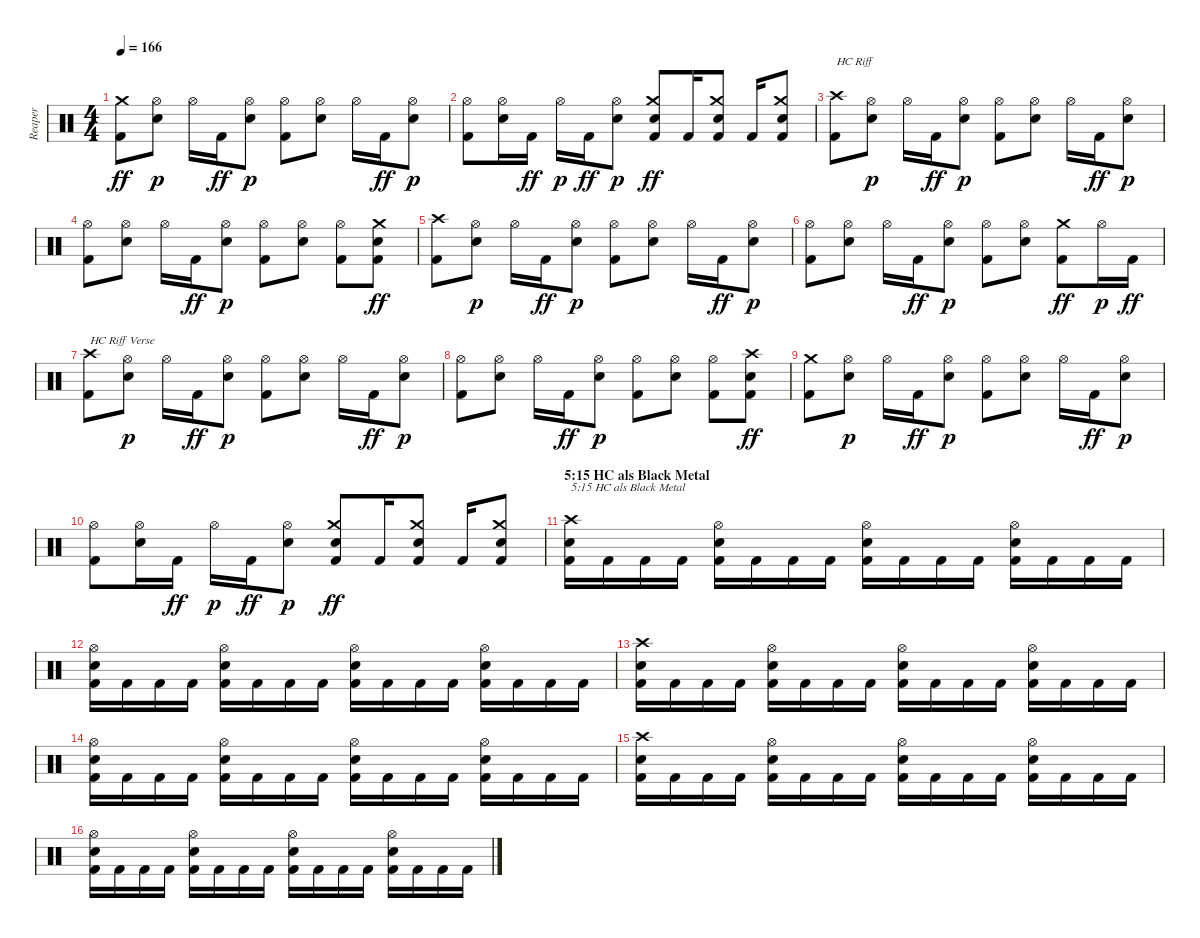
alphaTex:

\track ("Reaper" "Reaper") {instrument percussion}
\staff {score}
\articulation defaults
\ts (4 4)
\tempo 166
\clef neutral
\ks c
("Kick (hit) 2" "Crash medium (hit)").8{dy ff} ("Electric Snare (hit)" "Hi-Hat (open)").8{dy p} "Hi-Hat (open)".16 "Kick (hit) 2".16{dy ff} ("Electric Snare (hit)" "Hi-Hat (open)").8{dy p} ("Kick (hit) 2" "Hi-Hat (open)").8 ("Electric Snare (hit)" "Hi-Hat (open)").8 "Hi-Hat (open)".16 "Kick (hit) 2".16{dy ff} ("Electric Snare (hit)" "Hi-Hat (open)").8{dy p} |
("Kick (hit) 2" "Hi-Hat (open)").8 ("Electric Snare (hit)" "Hi-Hat (open)").16 "Kick (hit) 2".16{dy ff} "Hi-Hat (open)".16{dy p} "Kick (hit) 2".16{dy ff} ("Electric Snare (hit)" "Hi-Hat (open)").8{dy p} ("Kick (hit) 2" "Electric Snare (hit)" "Crash medium (hit)").8{dy ff} "Kick (hit) 2".16 ("Kick (hit) 2" "Electric Snare (hit)" "Crash medium (hit)").8 "Kick (hit) 2".16 ("Kick (hit) 2" "Electric Snare (hit)" "Crash medium (hit)").8 |
("Kick (hit) 2" "Crash high (hit)").8{txt "HC Riff"} ("Electric Snare (hit)" "Hi-Hat (open)").8{dy p} "Hi-Hat (open)".16 "Kick (hit) 2".16{dy ff} ("Electric Snare (hit)" "Hi-Hat (open)").8{dy p} ("Kick (hit) 2" "Hi-Hat (open)").8 ("Electric Snare (hit)" "Hi-Hat (open)").8 "Hi-Hat (open)".16 "Kick (hit) 2".16{dy ff} ("Electric Snare (hit)" "Hi-Hat (open)").8{dy p} |
("Kick (hit) 2" "Hi-Hat (open)").8 ("Electric Snare (hit)" "Hi-Hat (open)").8 "Hi-Hat (open)".16 "Kick (hit) 2".16{dy ff} ("Electric Snare (hit)" "Hi-Hat (open)").8{dy p} ("Kick (hit) 2" "Hi-Hat (open)").8 ("Electric Snare (hit)" "Hi-Hat (open)").8 ("Kick (hit) 2" "Hi-Hat (open)").8 ("Kick (hit) 2" "Electric Snare (hit)" "Crash medium (hit)").8{dy ff} |
("Kick (hit) 2" "Crash high (hit)").8 ("Electric Snare (hit)" "Hi-Hat (open)").8{dy p} "Hi-Hat (open)".16 "Kick (hit) 2".16{dy ff} ("Electric Snare (hit)" "Hi-Hat (open)").8{dy p} ("Kick (hit) 2" "Hi-Hat (open)").8 ("Electric Snare (hit)" "Hi-Hat (open)").8 "Hi-Hat (open)".16 "Kick (hit) 2".16{dy ff} ("Electric Snare (hit)" "Hi-Hat (open)").8{dy p} |
("Kick (hit) 2" "Hi-Hat (open)").8 ("Electric Snare (hit)" "Hi-Hat (open)").8 "Hi-Hat (open)".16 "Kick (hit) 2".16{dy ff} ("Electric Snare (hit)" "Hi-Hat (open)").8{dy p} ("Kick (hit) 2" "Hi-Hat (open)").8 ("Electric Snare (hit)" "Hi-Hat (open)").8 ("Kick (hit) 2" "Crash medium (hit)").8{dy ff} "Hi-Hat (open)".16{dy p} "Kick (hit) 2".16{dy ff} |
("Kick (hit) 2" "Crash high (hit)").8{txt "HC Riff Verse"} ("Electric Snare (hit)" "Hi-Hat (open)").8{dy p} "Hi-Hat (open)".16 "Kick (hit) 2".16{dy ff} ("Electric Snare (hit)" "Hi-Hat (open)").8{dy p} ("Kick (hit) 2" "Hi-Hat (open)").8 ("Electric Snare (hit)" "Hi-Hat (open)").8 "Hi-Hat (open)".16 "Kick (hit) 2".16{dy ff} ("Electric Snare (hit)" "Hi-Hat (open)").8{dy p} |
("Kick (hit) 2" "Hi-Hat (open)").8 ("Electric Snare (hit)" "Hi-Hat (open)").8 "Hi-Hat (open)".16 "Kick (hit) 2".16{dy ff} ("Electric Snare (hit)" "Hi-Hat (open)").8{dy p} ("Kick (hit) 2" "Hi-Hat (open)").8 ("Electric Snare (hit)" "Hi-Hat (open)").8 ("Kick (hit) 2" "Hi-Hat (open)").8 ("Kick (hit) 2" "Electric Snare (hit)" "Crash high (hit)").8{dy ff} |
("Kick (hit) 2" "Crash medium (hit)").8 ("Electric Snare (hit)" "Hi-Hat (open)").8{dy p} "Hi-Hat (open)".16 "Kick (hit) 2".16{dy ff} ("Electric Snare (hit)" "Hi-Hat (open)").8{dy p} ("Kick (hit) 2" "Hi-Hat (open)").8 ("Electric Snare (hit)" "Hi-Hat (open)").8 "Hi-Hat (open)".16 "Kick (hit) 2".16{dy ff} ("Electric Snare (hit)" "Hi-Hat (open)").8{dy p} |
("Kick (hit) 2" "Hi-Hat (open)").8 ("Electric Snare (hit)" "Hi-Hat (open)").16 "Kick (hit) 2".16{dy ff} "Hi-Hat (open)".16{dy p} "Kick (hit) 2".16{dy ff} ("Electric Snare (hit)" "Hi-Hat (open)").8{dy p} ("Kick (hit) 2" "Electric Snare (hit)" "Crash medium (hit)").8{dy ff} "Kick (hit) 2".16 ("Kick (hit) 2" "Electric Snare (hit)" "Crash medium (hit)").8 "Kick (hit) 2".16 ("Kick (hit) 2" "Electric Snare (hit)" "Crash medium (hit)").8 |
\section ("" "5:15 HC als Black Metal")
("Kick (hit) 2" "Electric Snare (hit)" "Crash high (hit)").16{txt "5:15 HC als Black Metal"} "Kick (hit) 2".16 "Kick (hit) 2".16 "Kick (hit) 2".16 ("Kick (hit) 2" "Electric Snare (hit)" "Hi-Hat (open)").16 "Kick (hit) 2".16 "Kick (hit) 2".16 "Kick (hit) 2".16 ("Kick (hit) 2" "Electric Snare (hit)" "Hi-Hat (open)").16 "Kick (hit) 2".16 "Kick (hit) 2".16 "Kick (hit) 2".16 ("Kick (hit) 2" "Electric Snare (hit)" "Hi-Hat (open)").16 "Kick (hit) 2".16 "Kick (hit) 2".16 "Kick (hit) 2".16 |
("Kick (hit) 2" "Electric Snare (hit)" "Hi-Hat (open)").16 "Kick (hit) 2".16 "Kick (hit) 2".16 "Kick (hit) 2".16 ("Kick (hit) 2" "Electric Snare (hit)" "Hi-Hat (open)").16 "Kick (hit) 2".16 "Kick (hit) 2".16 "Kick (hit) 2".16 ("Kick (hit) 2" "Electric Snare (hit)" "Hi-Hat (open)").16 "Kick (hit) 2".16 "Kick (hit) 2".16 "Kick (hit) 2".16 ("Kick (hit) 2" "Electric Snare (hit)" "Hi-Hat (open)").16 "Kick (hit) 2".16 "Kick (hit) 2".16 "Kick (hit) 2".16 |
("Kick (hit) 2" "Electric Snare (hit)" "Crash high (hit)").16 "Kick (hit) 2".16 "Kick (hit) 2".16 "Kick (hit) 2".16 ("Kick (hit) 2" "Electric Snare (hit)" "Hi-Hat (open)").16 "Kick (hit) 2".16 "Kick (hit) 2".16 "Kick (hit) 2".16 ("Kick (hit) 2" "Electric Snare (hit)" "Hi-Hat (open)").16 "Kick (hit) 2".16 "Kick (hit) 2".16 "Kick (hit) 2".16 ("Kick (hit) 2" "Electric Snare (hit)" "Hi-Hat (open)").16 "Kick (hit) 2".16 "Kick (hit) 2".16 "Kick (hit) 2".16 |
("Kick (hit) 2" "Electric Snare (hit)" "Hi-Hat (open)").16 "Kick (hit) 2".16 "Kick (hit) 2".16 "Kick (hit) 2".16 ("Kick (hit) 2" "Electric Snare (hit)" "Hi-Hat (open)").16 "Kick (hit) 2".16 "Kick (hit) 2".16 "Kick (hit) 2".16 ("Kick (hit) 2" "Electric Snare (hit)" "Hi-Hat (open)").16 "Kick (hit) 2".16 "Kick (hit) 2".16 "Kick (hit) 2".16 ("Kick (hit) 2" "Electric Snare (hit)" "Hi-Hat (open)").16 "Kick (hit) 2".16 "Kick (hit) 2".16 "Kick (hit) 2".16 |
("Kick (hit) 2" "Electric Snare (hit)" "Crash high (hit)").16 "Kick (hit) 2".16 "Kick (hit) 2".16 "Kick (hit) 2".16 ("Kick (hit) 2" "Electric Snare (hit)" "Hi-Hat (open)").16 "Kick (hit) 2".16 "Kick (hit) 2".16 "Kick (hit) 2".16 ("Kick (hit) 2" "Electric Snare (hit)" "Hi-Hat (open)").16 "Kick (hit) 2".16 "Kick (hit) 2".16 "Kick (hit) 2".16 ("Kick (hit) 2" "Electric Snare (hit)" "Hi-Hat (open)").16 "Kick (hit) 2".16 "Kick (hit) 2".16 "Kick (hit) 2".16 |
("Kick (hit) 2" "Electric Snare (hit)" "Hi-Hat (open)").16 "Kick (hit) 2".16 "Kick (hit) 2".16 "Kick (hit) 2".16 ("Kick (hit) 2" "Electric Snare (hit)" "Hi-Hat (open)").16 "Kick (hit) 2".16 "Kick (hit) 2".16 "Kick (hit) 2".16 ("Kick (hit) 2" "Electric Snare (hit)" "Hi-Hat (open)").16 "Kick (hit) 2".16 "Kick (hit) 2".16 "Kick (hit) 2".16 ("Kick (hit) 2" "Electric Snare (hit)" "Hi-Hat (open)").16 "Kick (hit) 2".16 "Kick (hit) 2".16 "Kick (hit) 2".16
